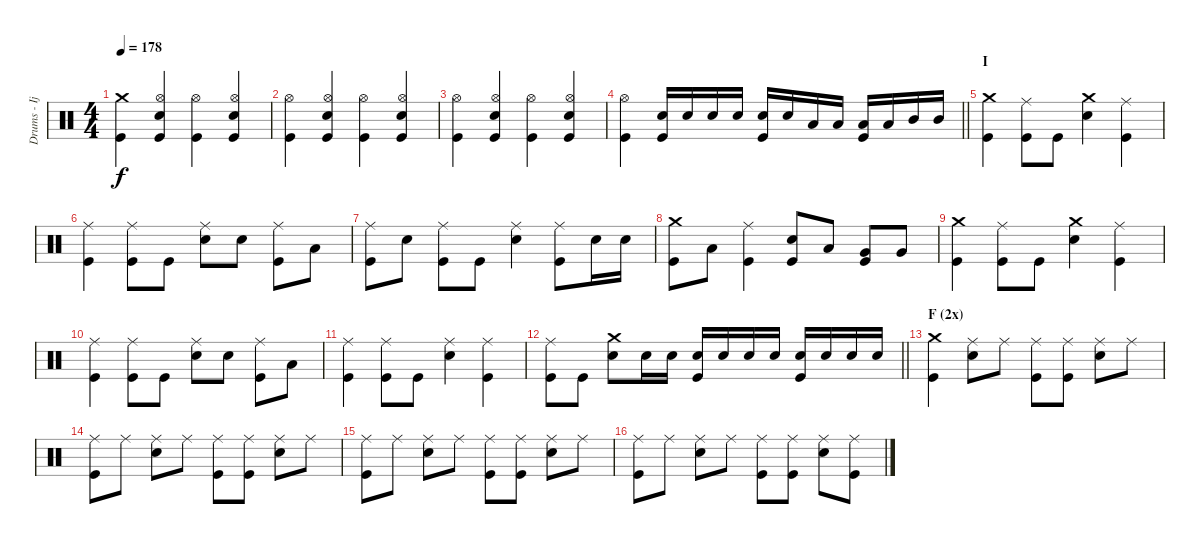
\track ("Drums - Ijichi" "Drums - Ij") {instrument percussion}
\staff {score}
\articulation defaults
\ts (4 4)
\tempo 178
\clef neutral
\ks c
("Crash medium (hit)" "Kick (hit)").4{dy f} ("Hi-Hat (open)" "Electric Snare (hit)" "Kick (hit)").4 ("Hi-Hat (open)" "Kick (hit)").4 ("Hi-Hat (open)" "Electric Snare (hit)" "Kick (hit)").4 |
("Hi-Hat (open)" "Kick (hit)").4 ("Hi-Hat (open)" "Electric Snare (hit)" "Kick (hit)").4 ("Hi-Hat (open)" "Kick (hit)").4 ("Hi-Hat (open)" "Electric Snare (hit)" "Kick (hit)").4 |
("Hi-Hat (open)" "Kick (hit)").4 ("Hi-Hat (open)" "Electric Snare (hit)" "Kick (hit)").4 ("Hi-Hat (open)" "Kick (hit)").4 ("Hi-Hat (open)" "Electric Snare (hit)" "Kick (hit)").4 |
\barLineRight lightlight
("Hi-Hat (open)" "Kick (hit)").4 ("Electric Snare (hit)" "Kick (hit)").16 "Electric Snare (hit)".16 "Electric Snare (hit)".16 "Electric Snare (hit)".16 ("Electric Snare (hit)" "Kick (hit)").16 "Electric Snare (hit)".16 "Low Tom (hit)".16 "Low Tom (hit)".16 ("Low Tom (hit)" "Kick (hit)").16 "Low Tom (hit)".16 "Mid Tom (hit)".16 "Mid Tom (hit)".16 |
\section ("" "I")
("Crash medium (hit)" "Kick (hit)").4 ("Ride (middle)" "Kick (hit)").8 "Kick (hit)".8 ("Crash medium (hit)" "Electric Snare (hit)").4 ("Ride (middle)" "Kick (hit)").4 |
("Ride (middle)" "Kick (hit)").4 ("Ride (middle)" "Kick (hit)").8 "Kick (hit)".8 ("Ride (middle)" "Electric Snare (hit)").8 "Electric Snare (hit)".8 ("Ride (middle)" "Kick (hit)").8 "Low Tom (hit)".8 |
("Ride (middle)" "Kick (hit)").8 "Electric Snare (hit)".8 ("Ride (middle)" "Kick (hit)").8 "Kick (hit)".8 ("Ride (middle)" "Electric Snare (hit)").4 ("Ride (middle)" "Kick (hit)").8 "Electric Snare (hit)".16 "Electric Snare (hit)".16 |
("Crash medium (hit)" "Kick (hit)").8 "Low Tom (hit)".8 ("Ride (middle)" "Kick (hit)").4 ("Electric Snare (hit)" "Kick (hit)").8 "Low Tom (hit)".8 ("Very Low Tom (hit)" "Kick (hit)").8 "Very Low Tom (hit)".8 |
("Crash medium (hit)" "Kick (hit)").4 ("Ride (middle)" "Kick (hit)").8 "Kick (hit)".8 ("Crash medium (hit)" "Electric Snare (hit)").4 ("Ride (middle)" "Kick (hit)").4 |
("Ride (middle)" "Kick (hit)").4 ("Ride (middle)" "Kick (hit)").8 "Kick (hit)".8 ("Ride (middle)" "Electric Snare (hit)").8 "Electric Snare (hit)".8 ("Ride (middle)" "Kick (hit)").8 "Low Tom (hit)".8 |
("Ride (middle)" "Kick (hit)").4 ("Ride (middle)" "Kick (hit)").8 "Kick (hit)".8 ("Ride (middle)" "Electric Snare (hit)").4 ("Ride (middle)" "Kick (hit)").4 |
\barLineRight lightlight
("Ride (middle)" "Kick (hit)").8 "Kick (hit)".8 ("Crash medium (hit)" "Electric Snare (hit)").8 "Electric Snare (hit)".16 "Electric Snare (hit)".16 ("Electric Snare (hit)" "Kick (hit)").16 "Electric Snare (hit)".16 "Electric Snare (hit)".16 "Electric Snare (hit)".16 ("Electric Snare (hit)" "Kick (hit)").16 "Electric Snare (hit)".16 "Electric Snare (hit)".16 "Electric Snare (hit)".16 |
\section ("" "F (2x)")
("Crash medium (hit)" "Kick (hit)").4 ("Ride (middle)" "Electric Snare (hit)").8 "Ride (middle)".8 ("Ride (middle)" "Kick (hit)").8 ("Ride (middle)" "Kick (hit)").8 ("Ride (middle)" "Electric Snare (hit)").8 "Ride (middle)".8 |
("Ride (middle)" "Kick (hit)").8 "Ride (middle)".8 ("Ride (middle)" "Electric Snare (hit)").8 "Ride (middle)".8 ("Ride (middle)" "Kick (hit)").8 ("Ride (middle)" "Kick (hit)").8 ("Ride (middle)" "Electric Snare (hit)").8 "Ride (middle)".8 |
("Ride (middle)" "Kick (hit)").8 "Ride (middle)".8 ("Ride (middle)" "Electric Snare (hit)").8 "Ride (middle)".8 ("Ride (middle)" "Kick (hit)").8 ("Ride (middle)" "Kick (hit)").8 ("Ride (middle)" "Electric Snare (hit)").8 "Ride (middle)".8 |
("Ride (middle)" "Kick (hit)").8 "Ride (middle)".8 ("Ride (middle)" "Electric Snare (hit)").8 "Ride (middle)".8 ("Ride (middle)" "Kick (hit)").8 ("Ride (middle)" "Kick (hit)").8 ("Ride (middle)" "Electric Snare (hit)").8 ("Ride (middle)" "Kick (hit)").8
